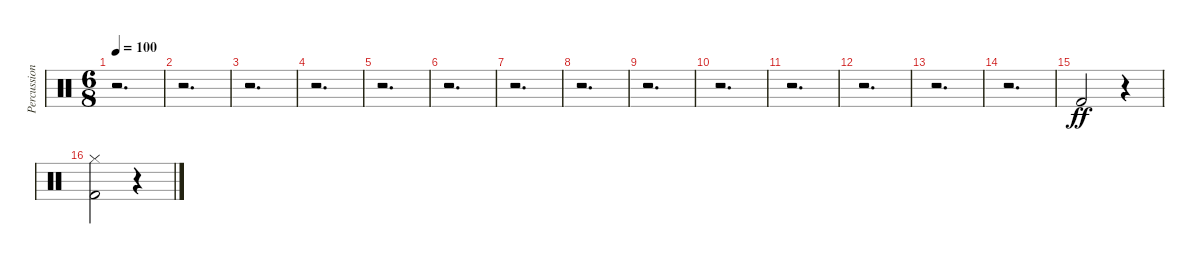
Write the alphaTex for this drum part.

\track ("Percussion" "Percussion") {instrument percussion}
\staff {score}
\articulation defaults
\ts (6 8)
\tempo 100
\clef neutral
\ks c
r.2{d dy ff} |
r.2{d} |
r.2{d} |
r.2{d} |
r.2{d} |
r.2{d} |
r.2{d} |
r.2{d} |
r.2{d} |
r.2{d} |
r.2{d} |
r.2{d} |
r.2{d} |
r.2{d} |
"Kick (hit) 2".2 r.4 |
("Kick (hit) 2" "Hi-Hat (closed)").2 r.4
